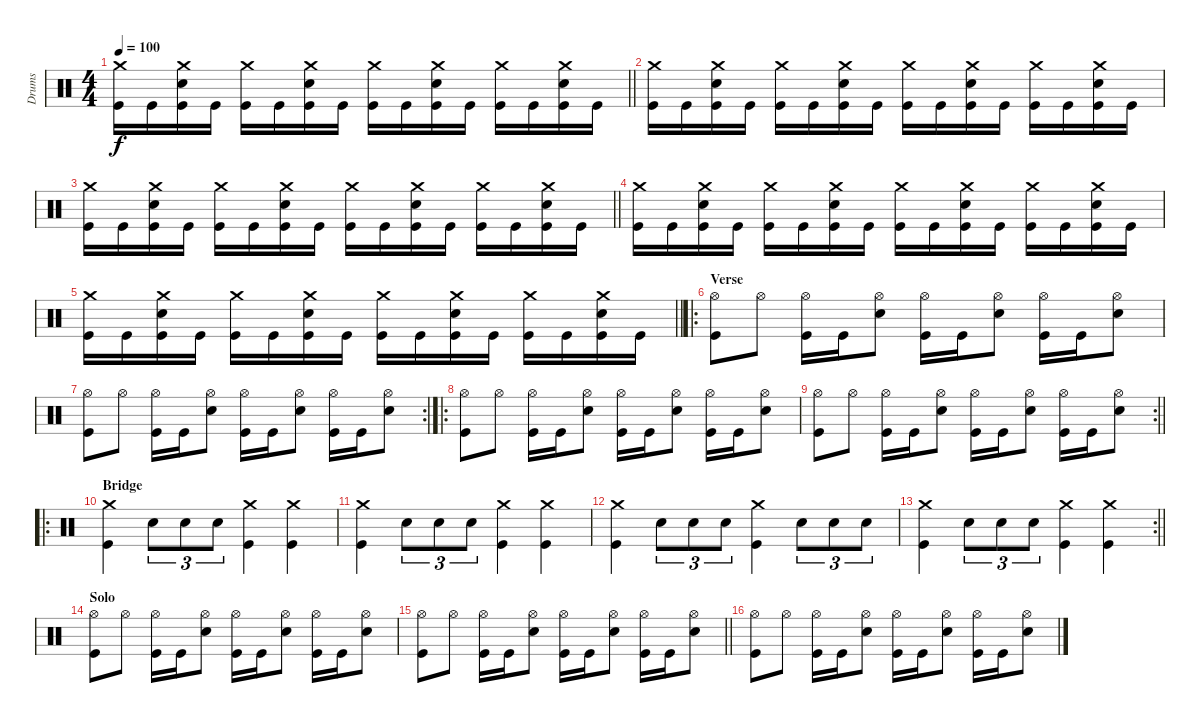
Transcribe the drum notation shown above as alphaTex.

\track ("Drums" "Drums") {instrument percussion}
\staff {score}
\articulation defaults
\ts (4 4)
\tempo 100
\clef neutral
\barLineRight lightlight
\ks c
("Crash medium (hit)" "Kick (hit)").16{dy f} "Kick (hit)".16 ("Crash medium (hit)" "Snare (hit) 2" "Kick (hit)").16 "Kick (hit)".16 ("Crash medium (hit)" "Kick (hit)").16 "Kick (hit)".16 ("Crash medium (hit)" "Snare (hit) 2" "Kick (hit)").16 "Kick (hit)".16 ("Crash medium (hit)" "Kick (hit)").16 "Kick (hit)".16 ("Crash medium (hit)" "Snare (hit) 2" "Kick (hit)").16 "Kick (hit)".16 ("Crash medium (hit)" "Kick (hit)").16 "Kick (hit)".16 ("Crash medium (hit)" "Snare (hit) 2" "Kick (hit)").16 "Kick (hit)".16 |
("Crash medium (hit)" "Kick (hit)").16 "Kick (hit)".16 ("Crash medium (hit)" "Snare (hit) 2" "Kick (hit)").16 "Kick (hit)".16 ("Crash medium (hit)" "Kick (hit)").16 "Kick (hit)".16 ("Crash medium (hit)" "Snare (hit) 2" "Kick (hit)").16 "Kick (hit)".16 ("Crash medium (hit)" "Kick (hit)").16 "Kick (hit)".16 ("Crash medium (hit)" "Snare (hit) 2" "Kick (hit)").16 "Kick (hit)".16 ("Crash medium (hit)" "Kick (hit)").16 "Kick (hit)".16 ("Crash medium (hit)" "Snare (hit) 2" "Kick (hit)").16 "Kick (hit)".16 |
\barLineRight lightlight
("Crash medium (hit)" "Kick (hit)").16 "Kick (hit)".16 ("Crash medium (hit)" "Snare (hit) 2" "Kick (hit)").16 "Kick (hit)".16 ("Crash medium (hit)" "Kick (hit)").16 "Kick (hit)".16 ("Crash medium (hit)" "Snare (hit) 2" "Kick (hit)").16 "Kick (hit)".16 ("Crash medium (hit)" "Kick (hit)").16 "Kick (hit)".16 ("Crash medium (hit)" "Snare (hit) 2" "Kick (hit)").16 "Kick (hit)".16 ("Crash medium (hit)" "Kick (hit)").16 "Kick (hit)".16 ("Crash medium (hit)" "Snare (hit) 2" "Kick (hit)").16 "Kick (hit)".16 |
("Crash medium (hit)" "Kick (hit)").16 "Kick (hit)".16 ("Crash medium (hit)" "Snare (hit) 2" "Kick (hit)").16 "Kick (hit)".16 ("Crash medium (hit)" "Kick (hit)").16 "Kick (hit)".16 ("Crash medium (hit)" "Snare (hit) 2" "Kick (hit)").16 "Kick (hit)".16 ("Crash medium (hit)" "Kick (hit)").16 "Kick (hit)".16 ("Crash medium (hit)" "Snare (hit) 2" "Kick (hit)").16 "Kick (hit)".16 ("Crash medium (hit)" "Kick (hit)").16 "Kick (hit)".16 ("Crash medium (hit)" "Snare (hit) 2" "Kick (hit)").16 "Kick (hit)".16 |
\barLineRight lightlight
("Crash medium (hit)" "Kick (hit)").16 "Kick (hit)".16 ("Crash medium (hit)" "Snare (hit) 2" "Kick (hit)").16 "Kick (hit)".16 ("Crash medium (hit)" "Kick (hit)").16 "Kick (hit)".16 ("Crash medium (hit)" "Snare (hit) 2" "Kick (hit)").16 "Kick (hit)".16 ("Crash medium (hit)" "Kick (hit)").16 "Kick (hit)".16 ("Crash medium (hit)" "Snare (hit) 2" "Kick (hit)").16 "Kick (hit)".16 ("Crash medium (hit)" "Kick (hit)").16 "Kick (hit)".16 ("Crash medium (hit)" "Snare (hit) 2" "Kick (hit)").16 "Kick (hit)".16 |
\ro
\section ("" "Verse")
("Hi-Hat (open)" "Kick (hit)").8 "Hi-Hat (open)".8 ("Hi-Hat (open)" "Kick (hit)").16 "Kick (hit)".16 ("Hi-Hat (open)" "Snare (hit) 2").8 ("Hi-Hat (open)" "Kick (hit)").16 "Kick (hit)".16 ("Hi-Hat (open)" "Snare (hit) 2").8 ("Hi-Hat (open)" "Kick (hit)").16 "Kick (hit)".16 ("Hi-Hat (open)" "Snare (hit) 2").8 |
\rc 2
("Hi-Hat (open)" "Kick (hit)").8 "Hi-Hat (open)".8 ("Hi-Hat (open)" "Kick (hit)").16 "Kick (hit)".16 ("Hi-Hat (open)" "Snare (hit) 2").8 ("Hi-Hat (open)" "Kick (hit)").16 "Kick (hit)".16 ("Hi-Hat (open)" "Snare (hit) 2").8 ("Hi-Hat (open)" "Kick (hit)").16 "Kick (hit)".16 ("Hi-Hat (open)" "Snare (hit) 2").8 |
\ro
("Hi-Hat (open)" "Kick (hit)").8 "Hi-Hat (open)".8 ("Hi-Hat (open)" "Kick (hit)").16 "Kick (hit)".16 ("Hi-Hat (open)" "Snare (hit) 2").8 ("Hi-Hat (open)" "Kick (hit)").16 "Kick (hit)".16 ("Hi-Hat (open)" "Snare (hit) 2").8 ("Hi-Hat (open)" "Kick (hit)").16 "Kick (hit)".16 ("Hi-Hat (open)" "Snare (hit) 2").8 |
\rc 2
\barLineRight lightlight
("Hi-Hat (open)" "Kick (hit)").8 "Hi-Hat (open)".8 ("Hi-Hat (open)" "Kick (hit)").16 "Kick (hit)".16 ("Hi-Hat (open)" "Snare (hit) 2").8 ("Hi-Hat (open)" "Kick (hit)").16 "Kick (hit)".16 ("Hi-Hat (open)" "Snare (hit) 2").8 ("Hi-Hat (open)" "Kick (hit)").16 "Kick (hit)".16 ("Hi-Hat (open)" "Snare (hit) 2").8 |
\ro
\section ("" "Bridge")
("Crash medium (hit)" "Kick (hit)").4 "Snare (hit) 2".8{tu (3 2)} "Snare (hit) 2".8{tu (3 2)} "Snare (hit) 2".8{tu (3 2)} ("Crash medium (hit)" "Kick (hit)").4 ("Crash medium (hit)" "Kick (hit)").4 |
("Crash medium (hit)" "Kick (hit)").4 "Snare (hit) 2".8{tu (3 2)} "Snare (hit) 2".8{tu (3 2)} "Snare (hit) 2".8{tu (3 2)} ("Crash medium (hit)" "Kick (hit)").4 ("Crash medium (hit)" "Kick (hit)").4 |
("Crash medium (hit)" "Kick (hit)").4 "Snare (hit) 2".8{tu (3 2)} "Snare (hit) 2".8{tu (3 2)} "Snare (hit) 2".8{tu (3 2)} ("Crash medium (hit)" "Kick (hit)").4 "Snare (hit) 2".8{tu (3 2)} "Snare (hit) 2".8{tu (3 2)} "Snare (hit) 2".8{tu (3 2)} |
\rc 2
\barLineRight lightlight
("Crash medium (hit)" "Kick (hit)").4 "Snare (hit) 2".8{tu (3 2)} "Snare (hit) 2".8{tu (3 2)} "Snare (hit) 2".8{tu (3 2)} ("Crash medium (hit)" "Kick (hit)").4 ("Crash medium (hit)" "Kick (hit)").4 |
\section ("" "Solo")
("Hi-Hat (open)" "Kick (hit)").8 "Hi-Hat (open)".8 ("Hi-Hat (open)" "Kick (hit)").16 "Kick (hit)".16 ("Hi-Hat (open)" "Snare (hit) 2").8 ("Hi-Hat (open)" "Kick (hit)").16 "Kick (hit)".16 ("Hi-Hat (open)" "Snare (hit) 2").8 ("Hi-Hat (open)" "Kick (hit)").16 "Kick (hit)".16 ("Hi-Hat (open)" "Snare (hit) 2").8 |
\barLineRight lightlight
("Hi-Hat (open)" "Kick (hit)").8 "Hi-Hat (open)".8 ("Hi-Hat (open)" "Kick (hit)").16 "Kick (hit)".16 ("Hi-Hat (open)" "Snare (hit) 2").8 ("Hi-Hat (open)" "Kick (hit)").16 "Kick (hit)".16 ("Hi-Hat (open)" "Snare (hit) 2").8 ("Hi-Hat (open)" "Kick (hit)").16 "Kick (hit)".16 ("Hi-Hat (open)" "Snare (hit) 2").8 |
("Hi-Hat (open)" "Kick (hit)").8 "Hi-Hat (open)".8 ("Hi-Hat (open)" "Kick (hit)").16 "Kick (hit)".16 ("Hi-Hat (open)" "Snare (hit) 2").8 ("Hi-Hat (open)" "Kick (hit)").16 "Kick (hit)".16 ("Hi-Hat (open)" "Snare (hit) 2").8 ("Hi-Hat (open)" "Kick (hit)").16 "Kick (hit)".16 ("Hi-Hat (open)" "Snare (hit) 2").8
